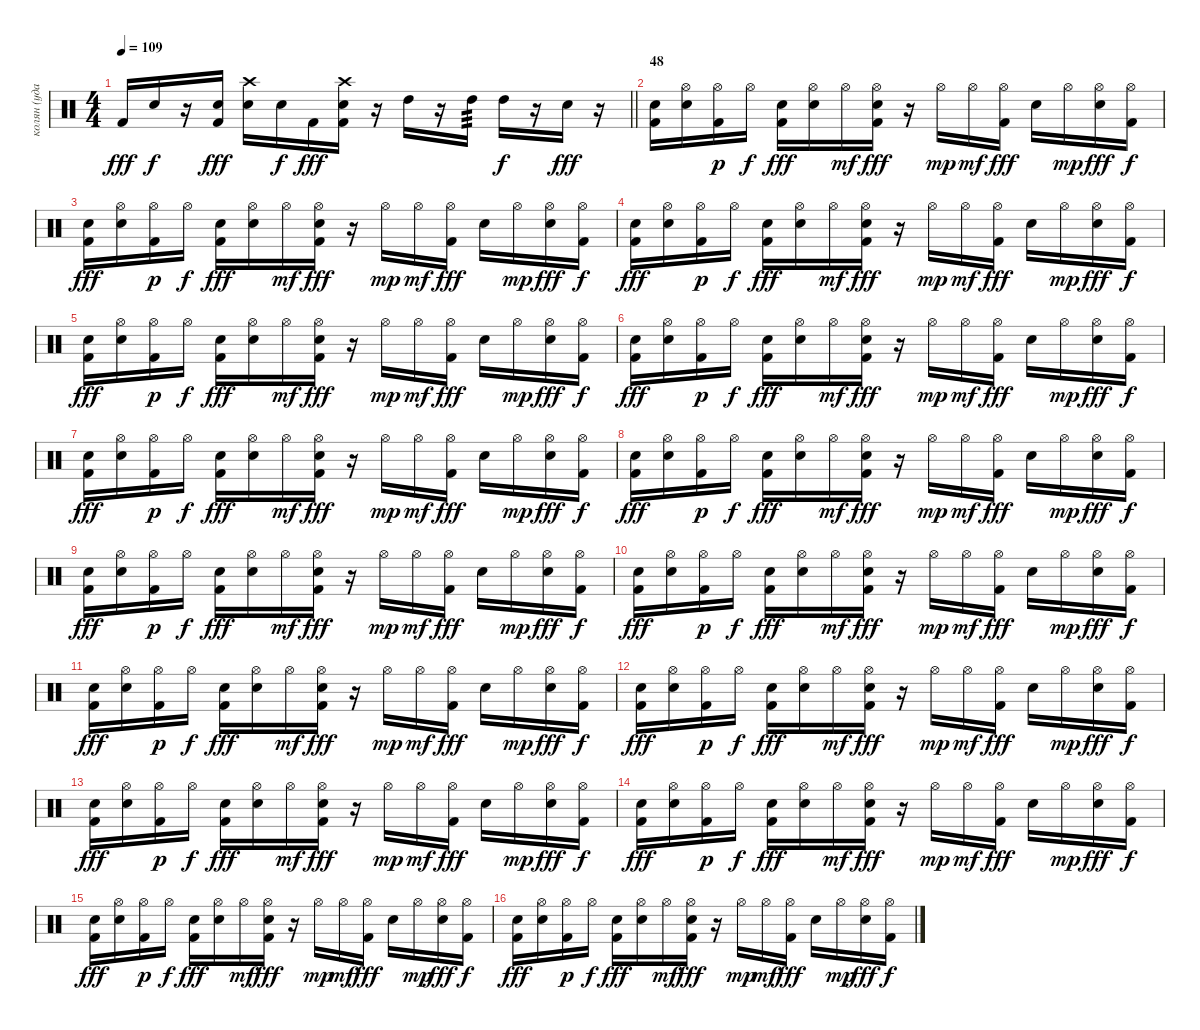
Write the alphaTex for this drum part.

\track ("колян (ударные)" "колян (уда") {instrument percussion}
\staff
\articulation defaults
\ts (4 4)
\tempo 109
\clef neutral
\barLineRight lightlight
\ks c "Kick (hit) 2".16{dy fff} "Snare (hit) 2".16{dy f}
r.16 ("Snare (hit) 2" "Kick (hit) 2").16{dy fff} ("Crash high (hit)" "Snare (hit) 2").16 "Snare (hit) 2".16{dy f} "Kick (hit) 2".16{dy fff} ("Crash high (hit)" "Snare (hit) 2" "Kick (hit) 2").16 r.16 "High Tom (hit)".16 r.16 "High Tom (hit)".16{tp 3} "High Tom (hit)".16{dy f} r.16 "Snare (hit) 2".16{dy fff} r.16 |
\section ("" "48")
("Snare (hit) 2" "Kick (hit) 2").16 ("Hi-Hat (open)" "Snare (hit) 2").16 ("Hi-Hat (open)" "Kick (hit) 2").16{dy p} "Hi-Hat (open)".16{dy f} ("Snare (hit) 2" "Kick (hit) 2").16{dy fff} ("Hi-Hat (open)" "Snare (hit) 2").16 "Hi-Hat (open)".16{dy mf} ("Hi-Hat (open)" "Snare (hit) 2" "Kick (hit) 2").16{dy fff} r.16 "Hi-Hat (open)".16{dy mp} "Hi-Hat (open)".16{dy mf} ("Hi-Hat (open)" "Kick (hit) 2").16{dy fff} "Snare (hit) 2".16 "Hi-Hat (open)".16{dy mp} ("Hi-Hat (open)" "Snare (hit) 2").16{dy fff} ("Hi-Hat (open)" "Kick (hit) 2").16{dy f} |
("Snare (hit) 2" "Kick (hit) 2").16{dy fff} ("Hi-Hat (open)" "Snare (hit) 2").16 ("Hi-Hat (open)" "Kick (hit) 2").16{dy p} "Hi-Hat (open)".16{dy f} ("Snare (hit) 2" "Kick (hit) 2").16{dy fff} ("Hi-Hat (open)" "Snare (hit) 2").16 "Hi-Hat (open)".16{dy mf} ("Hi-Hat (open)" "Snare (hit) 2" "Kick (hit) 2").16{dy fff} r.16 "Hi-Hat (open)".16{dy mp} "Hi-Hat (open)".16{dy mf} ("Hi-Hat (open)" "Kick (hit) 2").16{dy fff} "Snare (hit) 2".16 "Hi-Hat (open)".16{dy mp} ("Hi-Hat (open)" "Snare (hit) 2").16{dy fff} ("Hi-Hat (open)" "Kick (hit) 2").16{dy f} |
("Snare (hit) 2" "Kick (hit) 2").16{dy fff} ("Hi-Hat (open)" "Snare (hit) 2").16 ("Hi-Hat (open)" "Kick (hit) 2").16{dy p} "Hi-Hat (open)".16{dy f} ("Snare (hit) 2" "Kick (hit) 2").16{dy fff} ("Hi-Hat (open)" "Snare (hit) 2").16 "Hi-Hat (open)".16{dy mf} ("Hi-Hat (open)" "Snare (hit) 2" "Kick (hit) 2").16{dy fff} r.16 "Hi-Hat (open)".16{dy mp} "Hi-Hat (open)".16{dy mf} ("Hi-Hat (open)" "Kick (hit) 2").16{dy fff} "Snare (hit) 2".16 "Hi-Hat (open)".16{dy mp} ("Hi-Hat (open)" "Snare (hit) 2").16{dy fff} ("Hi-Hat (open)" "Kick (hit) 2").16{dy f} |
("Snare (hit) 2" "Kick (hit) 2").16{dy fff} ("Hi-Hat (open)" "Snare (hit) 2").16 ("Hi-Hat (open)" "Kick (hit) 2").16{dy p} "Hi-Hat (open)".16{dy f} ("Snare (hit) 2" "Kick (hit) 2").16{dy fff} ("Hi-Hat (open)" "Snare (hit) 2").16 "Hi-Hat (open)".16{dy mf} ("Hi-Hat (open)" "Snare (hit) 2" "Kick (hit) 2").16{dy fff} r.16 "Hi-Hat (open)".16{dy mp} "Hi-Hat (open)".16{dy mf} ("Hi-Hat (open)" "Kick (hit) 2").16{dy fff} "Snare (hit) 2".16 "Hi-Hat (open)".16{dy mp} ("Hi-Hat (open)" "Snare (hit) 2").16{dy fff} ("Hi-Hat (open)" "Kick (hit) 2").16{dy f} |
("Snare (hit) 2" "Kick (hit) 2").16{dy fff} ("Hi-Hat (open)" "Snare (hit) 2").16 ("Hi-Hat (open)" "Kick (hit) 2").16{dy p} "Hi-Hat (open)".16{dy f} ("Snare (hit) 2" "Kick (hit) 2").16{dy fff} ("Hi-Hat (open)" "Snare (hit) 2").16 "Hi-Hat (open)".16{dy mf} ("Hi-Hat (open)" "Snare (hit) 2" "Kick (hit) 2").16{dy fff} r.16 "Hi-Hat (open)".16{dy mp} "Hi-Hat (open)".16{dy mf} ("Hi-Hat (open)" "Kick (hit) 2").16{dy fff} "Snare (hit) 2".16 "Hi-Hat (open)".16{dy mp} ("Hi-Hat (open)" "Snare (hit) 2").16{dy fff} ("Hi-Hat (open)" "Kick (hit) 2").16{dy f} |
("Snare (hit) 2" "Kick (hit) 2").16{dy fff} ("Hi-Hat (open)" "Snare (hit) 2").16 ("Hi-Hat (open)" "Kick (hit) 2").16{dy p} "Hi-Hat (open)".16{dy f} ("Snare (hit) 2" "Kick (hit) 2").16{dy fff} ("Hi-Hat (open)" "Snare (hit) 2").16 "Hi-Hat (open)".16{dy mf} ("Hi-Hat (open)" "Snare (hit) 2" "Kick (hit) 2").16{dy fff} r.16 "Hi-Hat (open)".16{dy mp} "Hi-Hat (open)".16{dy mf} ("Hi-Hat (open)" "Kick (hit) 2").16{dy fff} "Snare (hit) 2".16 "Hi-Hat (open)".16{dy mp} ("Hi-Hat (open)" "Snare (hit) 2").16{dy fff} ("Hi-Hat (open)" "Kick (hit) 2").16{dy f} |
("Snare (hit) 2" "Kick (hit) 2").16{dy fff} ("Hi-Hat (open)" "Snare (hit) 2").16 ("Hi-Hat (open)" "Kick (hit) 2").16{dy p} "Hi-Hat (open)".16{dy f} ("Snare (hit) 2" "Kick (hit) 2").16{dy fff} ("Hi-Hat (open)" "Snare (hit) 2").16 "Hi-Hat (open)".16{dy mf} ("Hi-Hat (open)" "Snare (hit) 2" "Kick (hit) 2").16{dy fff} r.16 "Hi-Hat (open)".16{dy mp} "Hi-Hat (open)".16{dy mf} ("Hi-Hat (open)" "Kick (hit) 2").16{dy fff} "Snare (hit) 2".16 "Hi-Hat (open)".16{dy mp} ("Hi-Hat (open)" "Snare (hit) 2").16{dy fff} ("Hi-Hat (open)" "Kick (hit) 2").16{dy f} |
("Snare (hit) 2" "Kick (hit) 2").16{dy fff} ("Hi-Hat (open)" "Snare (hit) 2").16 ("Hi-Hat (open)" "Kick (hit) 2").16{dy p} "Hi-Hat (open)".16{dy f} ("Snare (hit) 2" "Kick (hit) 2").16{dy fff} ("Hi-Hat (open)" "Snare (hit) 2").16 "Hi-Hat (open)".16{dy mf} ("Hi-Hat (open)" "Snare (hit) 2" "Kick (hit) 2").16{dy fff} r.16 "Hi-Hat (open)".16{dy mp} "Hi-Hat (open)".16{dy mf} ("Hi-Hat (open)" "Kick (hit) 2").16{dy fff} "Snare (hit) 2".16 "Hi-Hat (open)".16{dy mp} ("Hi-Hat (open)" "Snare (hit) 2").16{dy fff} ("Hi-Hat (open)" "Kick (hit) 2").16{dy f} |
("Snare (hit) 2" "Kick (hit) 2").16{dy fff} ("Hi-Hat (open)" "Snare (hit) 2").16 ("Hi-Hat (open)" "Kick (hit) 2").16{dy p} "Hi-Hat (open)".16{dy f} ("Snare (hit) 2" "Kick (hit) 2").16{dy fff} ("Hi-Hat (open)" "Snare (hit) 2").16 "Hi-Hat (open)".16{dy mf} ("Hi-Hat (open)" "Snare (hit) 2" "Kick (hit) 2").16{dy fff} r.16 "Hi-Hat (open)".16{dy mp} "Hi-Hat (open)".16{dy mf} ("Hi-Hat (open)" "Kick (hit) 2").16{dy fff} "Snare (hit) 2".16 "Hi-Hat (open)".16{dy mp} ("Hi-Hat (open)" "Snare (hit) 2").16{dy fff} ("Hi-Hat (open)" "Kick (hit) 2").16{dy f} |
("Snare (hit) 2" "Kick (hit) 2").16{dy fff} ("Hi-Hat (open)" "Snare (hit) 2").16 ("Hi-Hat (open)" "Kick (hit) 2").16{dy p} "Hi-Hat (open)".16{dy f} ("Snare (hit) 2" "Kick (hit) 2").16{dy fff} ("Hi-Hat (open)" "Snare (hit) 2").16 "Hi-Hat (open)".16{dy mf} ("Hi-Hat (open)" "Snare (hit) 2" "Kick (hit) 2").16{dy fff} r.16 "Hi-Hat (open)".16{dy mp} "Hi-Hat (open)".16{dy mf} ("Hi-Hat (open)" "Kick (hit) 2").16{dy fff} "Snare (hit) 2".16 "Hi-Hat (open)".16{dy mp} ("Hi-Hat (open)" "Snare (hit) 2").16{dy fff} ("Hi-Hat (open)" "Kick (hit) 2").16{dy f} |
("Snare (hit) 2" "Kick (hit) 2").16{dy fff} ("Hi-Hat (open)" "Snare (hit) 2").16 ("Hi-Hat (open)" "Kick (hit) 2").16{dy p} "Hi-Hat (open)".16{dy f} ("Snare (hit) 2" "Kick (hit) 2").16{dy fff} ("Hi-Hat (open)" "Snare (hit) 2").16 "Hi-Hat (open)".16{dy mf} ("Hi-Hat (open)" "Snare (hit) 2" "Kick (hit) 2").16{dy fff} r.16 "Hi-Hat (open)".16{dy mp} "Hi-Hat (open)".16{dy mf} ("Hi-Hat (open)" "Kick (hit) 2").16{dy fff} "Snare (hit) 2".16 "Hi-Hat (open)".16{dy mp} ("Hi-Hat (open)" "Snare (hit) 2").16{dy fff} ("Hi-Hat (open)" "Kick (hit) 2").16{dy f} |
("Snare (hit) 2" "Kick (hit) 2").16{dy fff} ("Hi-Hat (open)" "Snare (hit) 2").16 ("Hi-Hat (open)" "Kick (hit) 2").16{dy p} "Hi-Hat (open)".16{dy f} ("Snare (hit) 2" "Kick (hit) 2").16{dy fff} ("Hi-Hat (open)" "Snare (hit) 2").16 "Hi-Hat (open)".16{dy mf} ("Hi-Hat (open)" "Snare (hit) 2" "Kick (hit) 2").16{dy fff} r.16 "Hi-Hat (open)".16{dy mp} "Hi-Hat (open)".16{dy mf} ("Hi-Hat (open)" "Kick (hit) 2").16{dy fff} "Snare (hit) 2".16 "Hi-Hat (open)".16{dy mp} ("Hi-Hat (open)" "Snare (hit) 2").16{dy fff} ("Hi-Hat (open)" "Kick (hit) 2").16{dy f} |
("Snare (hit) 2" "Kick (hit) 2").16{dy fff} ("Hi-Hat (open)" "Snare (hit) 2").16 ("Hi-Hat (open)" "Kick (hit) 2").16{dy p} "Hi-Hat (open)".16{dy f} ("Snare (hit) 2" "Kick (hit) 2").16{dy fff} ("Hi-Hat (open)" "Snare (hit) 2").16 "Hi-Hat (open)".16{dy mf} ("Hi-Hat (open)" "Snare (hit) 2" "Kick (hit) 2").16{dy fff} r.16 "Hi-Hat (open)".16{dy mp} "Hi-Hat (open)".16{dy mf} ("Hi-Hat (open)" "Kick (hit) 2").16{dy fff} "Snare (hit) 2".16 "Hi-Hat (open)".16{dy mp} ("Hi-Hat (open)" "Snare (hit) 2").16{dy fff} ("Hi-Hat (open)" "Kick (hit) 2").16{dy f} |
("Snare (hit) 2" "Kick (hit) 2").16{dy fff} ("Hi-Hat (open)" "Snare (hit) 2").16 ("Hi-Hat (open)" "Kick (hit) 2").16{dy p} "Hi-Hat (open)".16{dy f} ("Snare (hit) 2" "Kick (hit) 2").16{dy fff} ("Hi-Hat (open)" "Snare (hit) 2").16 "Hi-Hat (open)".16{dy mf} ("Hi-Hat (open)" "Snare (hit) 2" "Kick (hit) 2").16{dy fff} r.16 "Hi-Hat (open)".16{dy mp} "Hi-Hat (open)".16{dy mf} ("Hi-Hat (open)" "Kick (hit) 2").16{dy fff} "Snare (hit) 2".16 "Hi-Hat (open)".16{dy mp} ("Hi-Hat (open)" "Snare (hit) 2").16{dy fff} ("Hi-Hat (open)" "Kick (hit) 2").16{dy f} |
("Snare (hit) 2" "Kick (hit) 2").16{dy fff} ("Hi-Hat (open)" "Snare (hit) 2").16 ("Hi-Hat (open)" "Kick (hit) 2").16{dy p} "Hi-Hat (open)".16{dy f} ("Snare (hit) 2" "Kick (hit) 2").16{dy fff} ("Hi-Hat (open)" "Snare (hit) 2").16 "Hi-Hat (open)".16{dy mf} ("Hi-Hat (open)" "Snare (hit) 2" "Kick (hit) 2").16{dy fff} r.16 "Hi-Hat (open)".16{dy mp} "Hi-Hat (open)".16{dy mf} ("Hi-Hat (open)" "Kick (hit) 2").16{dy fff} "Snare (hit) 2".16 "Hi-Hat (open)".16{dy mp} ("Hi-Hat (open)" "Snare (hit) 2").16{dy fff} ("Hi-Hat (open)" "Kick (hit) 2").16{dy f}
